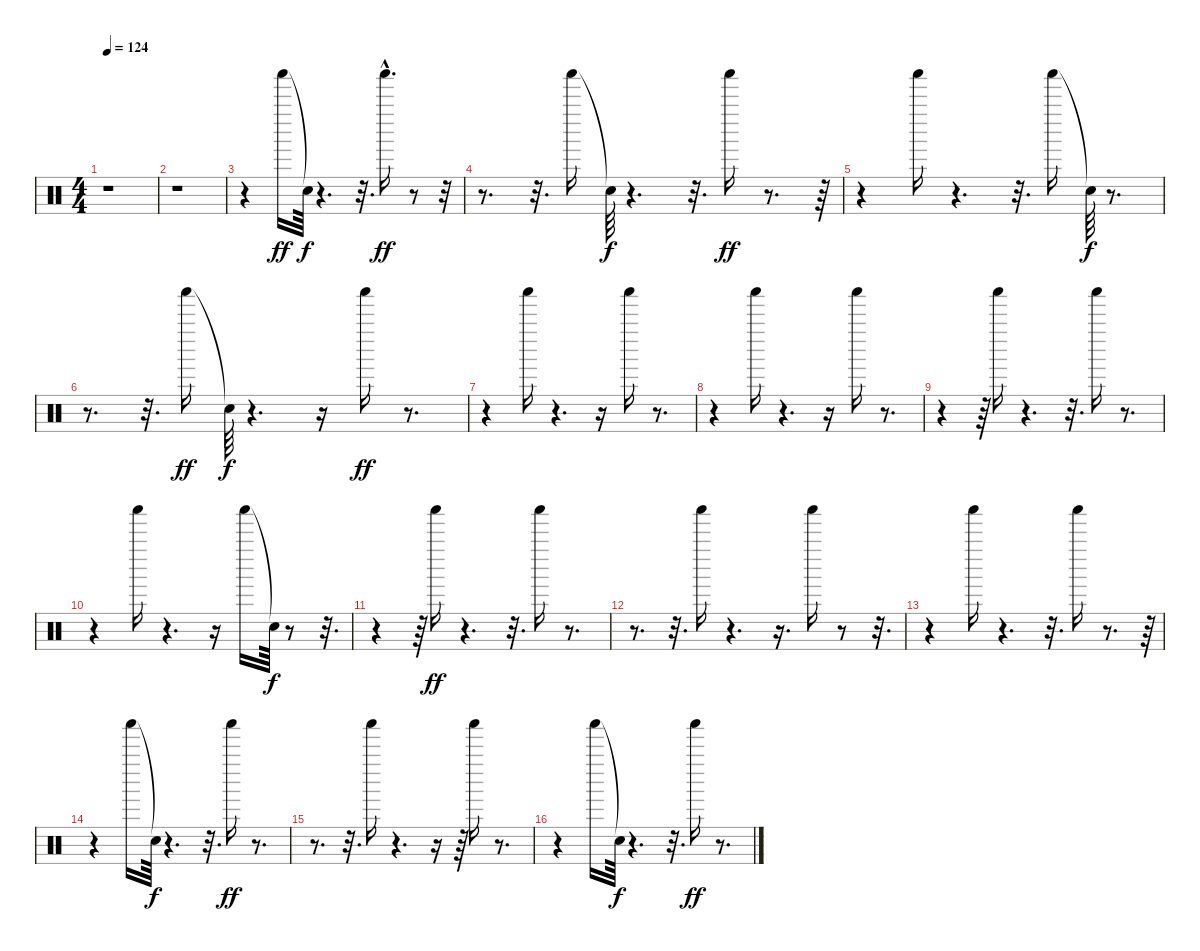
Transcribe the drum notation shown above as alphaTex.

\track "" {instrument percussion}
\staff {score}
\articulation defaults
\ts (4 4)
\tempo 124
\clef neutral
\ks c
r.1{dy ff} |
r.1 |
r.4 "Shaker (hit)".16 "Snare (hit)"{t}.64{dy f} r.4{d} r.32{d} "Shaker (hit)"{hac}.16{d dy ff} r.8 r.32 |
r.8{d} r.32{d} "Shaker (hit)".16 "Snare (hit)"{t}.64{dy f} r.4{d} r.32{d} "Shaker (hit)".16{dy ff} r.8{d} r.64 |
r.4 "Shaker (hit)".16 r.4{d} r.32{d} "Shaker (hit)".16 "Snare (hit)"{t}.64{dy f} r.8{d} |
r.8{d} r.32{d} "Shaker (hit)".16{dy ff} "Snare (hit)"{t}.64{dy f} r.4{d} r.16 "Shaker (hit)".16{dy ff} r.8{d} |
r.4 "Shaker (hit)".16 r.4{d} r.16 "Shaker (hit)".16 r.8{d} |
r.4 "Shaker (hit)".16 r.4{d} r.16 "Shaker (hit)".16 r.8{d} |
r.4 r.64 "Shaker (hit)".16 r.4{d} r.32{d} "Shaker (hit)".16 r.8{d} |
r.4 "Shaker (hit)".16 r.4{d} r.16 "Shaker (hit)".16 "Snare (hit)"{t}.64{dy f} r.8 r.32{d} |
r.4 r.64 "Shaker (hit)".16{dy ff} r.4{d} r.32{d} "Shaker (hit)".16 r.8{d} |
r.8{d} r.32{d} "Shaker (hit)".16 r.4{d} r.16{d} "Shaker (hit)".16 r.8 r.32{d} |
r.4 "Shaker (hit)".16 r.4{d} r.32{d} "Shaker (hit)".16 r.8{d} r.64 |
r.4 "Shaker (hit)".16 "Snare (hit)"{t}.64{dy f} r.4{d} r.32{d} "Shaker (hit)".16{dy ff} r.8{d} |
r.8{d} r.32{d} "Shaker (hit)".16 r.4{d} r.16 r.64 "Shaker (hit)".16 r.8{d} |
r.4 "Shaker (hit)".16 "Snare (hit)"{t}.64{dy f} r.4{d} r.32{d} "Shaker (hit)".16{dy ff} r.8{d}
